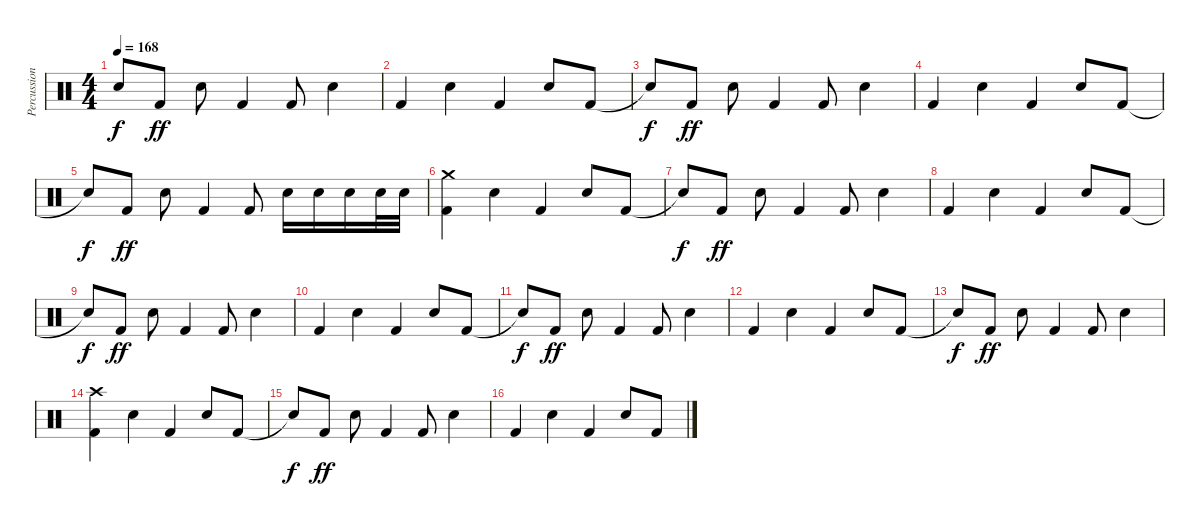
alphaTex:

\track ("Percussions" "Percussion") {instrument percussion}
\staff {score}
\articulation defaults
\ts (4 4)
\tempo 168
\clef neutral
\ks c "Snare (hit)"{t}.8{dy f} "Kick (hit) 2".8{dy ff} "Snare (hit) 2".8 "Kick (hit) 2".4 "Kick (hit) 2".8 "Snare (hit) 2".4
|
"Kick (hit) 2".4 "Snare (hit) 2".4 "Kick (hit) 2".4 "Snare (hit) 2".8 "Kick (hit) 2".8 |
"Snare (hit)"{t}.8{dy f} "Kick (hit) 2".8{dy ff} "Snare (hit) 2".8 "Kick (hit) 2".4 "Kick (hit) 2".8 "Snare (hit) 2".4 |
"Kick (hit) 2".4 "Snare (hit) 2".4 "Kick (hit) 2".4 "Snare (hit) 2".8 "Kick (hit) 2".8 |
"Snare (hit)"{t}.8{dy f} "Kick (hit) 2".8{dy ff} "Snare (hit) 2".8 "Kick (hit) 2".4 "Kick (hit) 2".8 "Snare (hit) 2".16 "Snare (hit) 2".16 "Snare (hit) 2".16 "Snare (hit) 2".32 "Snare (hit) 2".32 |
("Kick (hit) 2" "Crash medium (hit)").4 "Snare (hit) 2".4 "Kick (hit) 2".4 "Snare (hit) 2".8 "Kick (hit) 2".8 |
"Snare (hit)"{t}.8{dy f} "Kick (hit) 2".8{dy ff} "Snare (hit) 2".8 "Kick (hit) 2".4 "Kick (hit) 2".8 "Snare (hit) 2".4 |
"Kick (hit) 2".4 "Snare (hit) 2".4 "Kick (hit) 2".4 "Snare (hit) 2".8 "Kick (hit) 2".8 |
"Snare (hit)"{t}.8{dy f} "Kick (hit) 2".8{dy ff} "Snare (hit) 2".8 "Kick (hit) 2".4 "Kick (hit) 2".8 "Snare (hit) 2".4 |
"Kick (hit) 2".4 "Snare (hit) 2".4 "Kick (hit) 2".4 "Snare (hit) 2".8 "Kick (hit) 2".8 |
"Snare (hit)"{t}.8{dy f} "Kick (hit) 2".8{dy ff} "Snare (hit) 2".8 "Kick (hit) 2".4 "Kick (hit) 2".8 "Snare (hit) 2".4 |
"Kick (hit) 2".4 "Snare (hit) 2".4 "Kick (hit) 2".4 "Snare (hit) 2".8 "Kick (hit) 2".8 |
"Snare (hit)"{t}.8{dy f} "Kick (hit) 2".8{dy ff} "Snare (hit) 2".8 "Kick (hit) 2".4 "Kick (hit) 2".8 "Snare (hit) 2".4 |
("Kick (hit) 2" "Crash high (hit)").4 "Snare (hit) 2".4 "Kick (hit) 2".4 "Snare (hit) 2".8 "Kick (hit) 2".8 |
"Snare (hit)"{t}.8{dy f} "Kick (hit) 2".8{dy ff} "Snare (hit) 2".8 "Kick (hit) 2".4 "Kick (hit) 2".8 "Snare (hit) 2".4 |
"Kick (hit) 2".4 "Snare (hit) 2".4 "Kick (hit) 2".4 "Snare (hit) 2".8 "Kick (hit) 2".8
